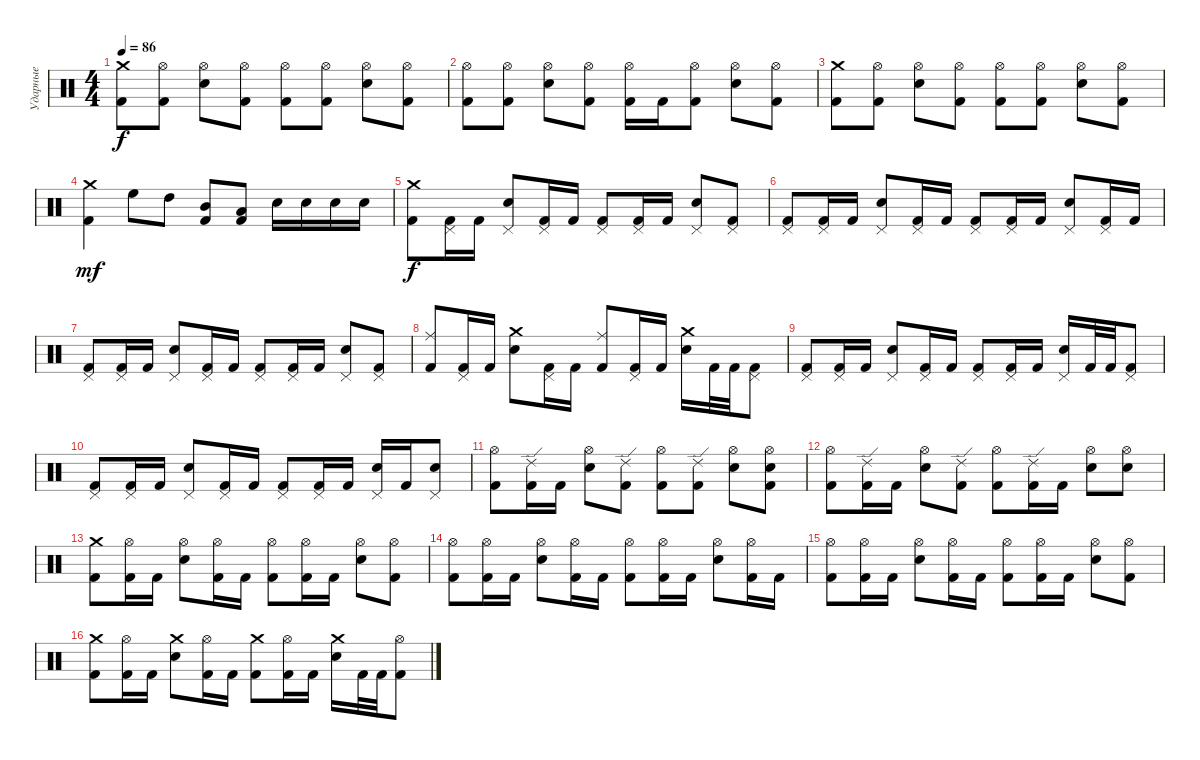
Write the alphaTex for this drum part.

\track ("Ударные" "Ударные") {instrument percussion}
\staff {score}
\articulation defaults
\ts (4 4)
\tempo 86
\clef neutral
\ks c
("Crash medium (hit)" "Kick (hit) 2").8{dy f} ("Hi-Hat (open)" "Kick (hit) 2").8 ("Hi-Hat (open)" "Electric Snare (hit)").8 ("Hi-Hat (open)" "Kick (hit) 2").8 ("Hi-Hat (open)" "Kick (hit) 2").8 ("Hi-Hat (open)" "Kick (hit) 2").8 ("Hi-Hat (open)" "Electric Snare (hit)").8 ("Hi-Hat (open)" "Kick (hit) 2").8 |
("Hi-Hat (open)" "Kick (hit) 2").8 ("Hi-Hat (open)" "Kick (hit) 2").8 ("Hi-Hat (open)" "Electric Snare (hit)").8 ("Hi-Hat (open)" "Kick (hit) 2").8 ("Hi-Hat (open)" "Kick (hit) 2").16 "Kick (hit) 2".16 ("Hi-Hat (open)" "Kick (hit) 2").8 ("Hi-Hat (open)" "Electric Snare (hit)").8 ("Hi-Hat (open)" "Kick (hit) 2").8 |
("Crash medium (hit)" "Kick (hit) 2").8 ("Hi-Hat (open)" "Kick (hit) 2").8 ("Hi-Hat (open)" "Electric Snare (hit)").8 ("Hi-Hat (open)" "Kick (hit) 2").8 ("Hi-Hat (open)" "Kick (hit) 2").8 ("Hi-Hat (open)" "Kick (hit) 2").8 ("Hi-Hat (open)" "Electric Snare (hit)").8 ("Hi-Hat (open)" "Kick (hit) 2").8 |
("Crash medium (hit)" "Kick (hit) 2").4{dy mf} "High Floor Tom (hit)".8 "High Tom (hit)".8 ("Mid Tom (hit)" "Kick (hit) 2").8 ("Low Tom (hit)" "Kick (hit) 2").8 "Electric Snare (hit)".16 "Electric Snare (hit)".16 "Electric Snare (hit)".16 "Electric Snare (hit)".16 |
("Crash medium (hit)" "Kick (hit) 2").8{dy f} ("Pedal Hi-Hat (hit)" "Kick (hit) 2").16 "Kick (hit) 2".16 ("Pedal Hi-Hat (hit)" "Electric Snare (hit)").8 ("Pedal Hi-Hat (hit)" "Kick (hit) 2").16 "Kick (hit) 2".16 ("Pedal Hi-Hat (hit)" "Kick (hit) 2").8 ("Pedal Hi-Hat (hit)" "Kick (hit) 2").16 "Kick (hit) 2".16 ("Pedal Hi-Hat (hit)" "Electric Snare (hit)").8 ("Pedal Hi-Hat (hit)" "Kick (hit) 2").8 |
("Pedal Hi-Hat (hit)" "Kick (hit) 2").8 ("Pedal Hi-Hat (hit)" "Kick (hit) 2").16 "Kick (hit) 2".16 ("Pedal Hi-Hat (hit)" "Electric Snare (hit)").8 ("Pedal Hi-Hat (hit)" "Kick (hit) 2").16 "Kick (hit) 2".16 ("Pedal Hi-Hat (hit)" "Kick (hit) 2").8 ("Pedal Hi-Hat (hit)" "Kick (hit) 2").16 "Kick (hit) 2".16 ("Pedal Hi-Hat (hit)" "Electric Snare (hit)").8 ("Pedal Hi-Hat (hit)" "Kick (hit) 2").16 "Kick (hit) 2".16 |
("Pedal Hi-Hat (hit)" "Kick (hit) 2").8 ("Pedal Hi-Hat (hit)" "Kick (hit) 2").16 "Kick (hit) 2".16 ("Pedal Hi-Hat (hit)" "Electric Snare (hit)").8 ("Pedal Hi-Hat (hit)" "Kick (hit) 2").16 "Kick (hit) 2".16 ("Pedal Hi-Hat (hit)" "Kick (hit) 2").8 ("Pedal Hi-Hat (hit)" "Kick (hit) 2").16 "Kick (hit) 2".16 ("Pedal Hi-Hat (hit)" "Electric Snare (hit)").8 ("Pedal Hi-Hat (hit)" "Kick (hit) 2").8 |
("Ride (middle)" "Kick (hit) 2").8 ("Pedal Hi-Hat (hit)" "Kick (hit) 2").16 "Kick (hit) 2".16 ("Crash medium (hit)" "Electric Snare (hit)").8 ("Pedal Hi-Hat (hit)" "Kick (hit) 2").16 "Kick (hit) 2".16 ("Ride (middle)" "Kick (hit) 2").8 ("Pedal Hi-Hat (hit)" "Kick (hit) 2").16 "Kick (hit) 2".16 ("Crash medium (hit)" "Electric Snare (hit)").16 "Kick (hit) 2".32 "Kick (hit) 2".32 ("Pedal Hi-Hat (hit)" "Kick (hit) 2").8 |
("Pedal Hi-Hat (hit)" "Kick (hit) 2").8 ("Pedal Hi-Hat (hit)" "Kick (hit) 2").16 "Kick (hit) 2".16 ("Pedal Hi-Hat (hit)" "Electric Snare (hit)").8 ("Pedal Hi-Hat (hit)" "Kick (hit) 2").16 "Kick (hit) 2".16 ("Pedal Hi-Hat (hit)" "Kick (hit) 2").8 ("Pedal Hi-Hat (hit)" "Kick (hit) 2").16 "Kick (hit) 2".16 ("Pedal Hi-Hat (hit)" "Electric Snare (hit)").16 "Kick (hit) 2".32 "Kick (hit) 2".32 ("Pedal Hi-Hat (hit)" "Kick (hit) 2").8 |
("Pedal Hi-Hat (hit)" "Kick (hit) 2").8 ("Pedal Hi-Hat (hit)" "Kick (hit) 2").16 "Kick (hit) 2".16 ("Pedal Hi-Hat (hit)" "Electric Snare (hit)").8 ("Pedal Hi-Hat (hit)" "Kick (hit) 2").16 "Kick (hit) 2".16 ("Pedal Hi-Hat (hit)" "Kick (hit) 2").8 ("Pedal Hi-Hat (hit)" "Kick (hit) 2").16 "Kick (hit) 2".16 ("Pedal Hi-Hat (hit)" "Electric Snare (hit)").16 "Kick (hit) 2".16 ("Pedal Hi-Hat (hit)" "Electric Snare (hit)").8 |
("Hi-Hat (open)" "Kick (hit) 2").8 ("Ride (edge) 2" "Kick (hit) 2").16 "Kick (hit) 2".16 ("Hi-Hat (open)" "Electric Snare (hit)").8 ("Ride (edge) 2" "Kick (hit) 2").8 ("Hi-Hat (open)" "Kick (hit) 2").8 ("Ride (edge) 2" "Kick (hit) 2").8 ("Hi-Hat (open)" "Electric Snare (hit)").8 ("Hi-Hat (open)" "Electric Snare (hit)" "Kick (hit) 2").8 |
("Hi-Hat (open)" "Kick (hit) 2").8 ("Ride (edge) 2" "Kick (hit) 2").16 "Kick (hit) 2".16 ("Hi-Hat (open)" "Electric Snare (hit)").8 ("Ride (edge) 2" "Kick (hit) 2").8 ("Hi-Hat (open)" "Kick (hit) 2").8 ("Ride (edge) 2" "Kick (hit) 2").16 "Kick (hit) 2".16 ("Hi-Hat (open)" "Electric Snare (hit)").8 ("Hi-Hat (open)" "Electric Snare (hit)").8 |
("Crash medium (hit)" "Kick (hit) 2").8 ("Hi-Hat (open)" "Kick (hit) 2").16 "Kick (hit) 2".16 ("Hi-Hat (open)" "Electric Snare (hit)").8 ("Hi-Hat (open)" "Kick (hit) 2").16 "Kick (hit) 2".16 ("Hi-Hat (open)" "Kick (hit) 2").8 ("Hi-Hat (open)" "Kick (hit) 2").16 "Kick (hit) 2".16 ("Hi-Hat (open)" "Electric Snare (hit)").8 ("Hi-Hat (open)" "Kick (hit) 2").8 |
("Hi-Hat (open)" "Kick (hit) 2").8 ("Hi-Hat (open)" "Kick (hit) 2").16 "Kick (hit) 2".16 ("Hi-Hat (open)" "Electric Snare (hit)").8 ("Hi-Hat (open)" "Kick (hit) 2").16 "Kick (hit) 2".16 ("Hi-Hat (open)" "Kick (hit) 2").8 ("Hi-Hat (open)" "Kick (hit) 2").16 "Kick (hit) 2".16 ("Hi-Hat (open)" "Electric Snare (hit)").8 ("Hi-Hat (open)" "Kick (hit) 2").16 "Kick (hit) 2".16 |
("Hi-Hat (open)" "Kick (hit) 2").8 ("Hi-Hat (open)" "Kick (hit) 2").16 "Kick (hit) 2".16 ("Hi-Hat (open)" "Electric Snare (hit)").8 ("Hi-Hat (open)" "Kick (hit) 2").16 "Kick (hit) 2".16 ("Hi-Hat (open)" "Kick (hit) 2").8 ("Hi-Hat (open)" "Kick (hit) 2").16 "Kick (hit) 2".16 ("Hi-Hat (open)" "Electric Snare (hit)").8 ("Hi-Hat (open)" "Kick (hit) 2").8 |
("Crash medium (hit)" "Kick (hit) 2").8 ("Hi-Hat (open)" "Kick (hit) 2").16 "Kick (hit) 2".16 ("Crash medium (hit)" "Electric Snare (hit)").8 ("Hi-Hat (open)" "Kick (hit) 2").16 "Kick (hit) 2".16 ("Crash medium (hit)" "Kick (hit) 2").8 ("Hi-Hat (open)" "Kick (hit) 2").16 "Kick (hit) 2".16 ("Crash medium (hit)" "Electric Snare (hit)").16 "Kick (hit) 2".32 "Kick (hit) 2".32 ("Hi-Hat (open)" "Kick (hit) 2").8
